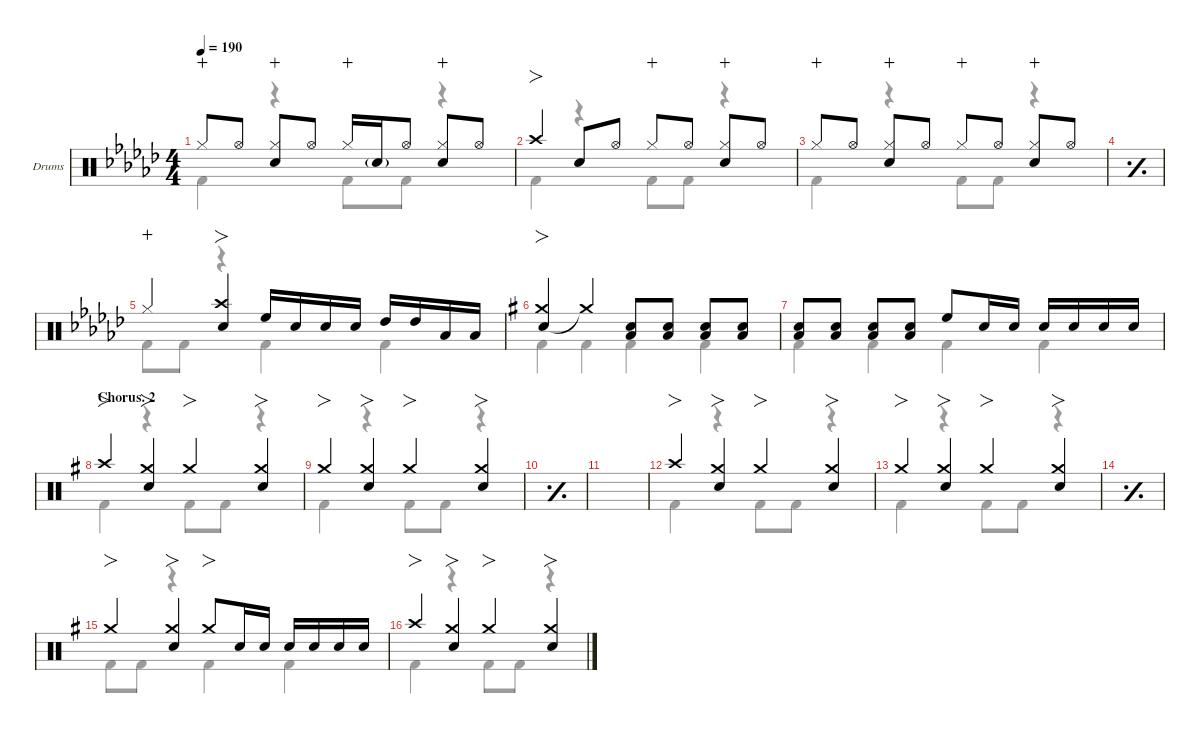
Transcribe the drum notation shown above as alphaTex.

\defaultSystemsLayout 4
\hideDynamics
\bracketExtendMode nobrackets
\firstSystemTrackNameOrientation horizontal
\track ("Drums" "Drums") {defaultSystemsLayout 4 instrument percussion}
\staff {score}
\articulation defaults
\voice
\ts (4 4)
\tempo 190
\clef neutral
\ks gb "Hi-Hat (closed)"{acc forcenatural}.8{dy f wahc} "Hi-Hat (open)"{acc forcenatural}.8
("Hi-Hat (closed)"{acc forcenatural} "Snare (hit) 2"{acc forcenatural}).8{wahc} "Hi-Hat (open)"{acc forcenatural}.8 "Hi-Hat (closed)"{acc forcenatural}.16{wahc} "Snare (hit) 2"{g acc forcenatural}.16{dy mf} "Hi-Hat (open)"{acc forcenatural}.8{dy f beam split} ("Hi-Hat (closed)"{acc forcenatural} "Snare (hit) 2"{acc forcenatural}).8{wahc} "Hi-Hat (open)"{acc forcenatural}.8 |
"Crash high (hit)"{acc forcenatural}.4{fo} "Snare (hit) 2"{acc forcenatural}.8 "Hi-Hat (open)"{acc forcenatural}.8 "Hi-Hat (closed)"{acc forcenatural}.8{wahc} "Hi-Hat (open)"{acc forcenatural}.8 ("Hi-Hat (closed)"{acc forcenatural} "Snare (hit) 2"{acc forcenatural}).8{wahc} "Hi-Hat (open)"{acc forcenatural}.8 |
"Hi-Hat (closed)"{acc forcenatural}.8{wahc} "Hi-Hat (open)"{acc forcenatural}.8 ("Hi-Hat (closed)"{acc forcenatural} "Snare (hit) 2"{acc forcenatural}).8{wahc} "Hi-Hat (open)"{acc forcenatural}.8 "Hi-Hat (closed)"{acc forcenatural}.8{wahc} "Hi-Hat (open)"{acc forcenatural}.8 ("Hi-Hat (closed)"{acc forcenatural} "Snare (hit) 2"{acc forcenatural}).8{wahc} "Hi-Hat (open)"{acc forcenatural}.8 |
\simile simple
|
\simile none "Hi-Hat (closed)"{acc forcenatural}.4{wahc}
("Crash high (hit)"{acc forcenatural} "Snare (hit) 2"{acc forcenatural}).4{fo} "High Floor Tom (hit)"{acc forcenatural}.16 "Snare (hit) 2"{acc forcenatural}.16{dy mf} "Snare (hit) 2"{acc forcenatural}.16{dy f} "Snare (hit) 2"{acc forcenatural}.16{dy mf beam split} "High Tom (hit)"{acc forcenatural}.16{dy f} "High Tom (hit)"{acc forcenatural}.16 "Low Tom (hit)"{acc forcenatural}.16 "Low Tom (hit)"{acc forcenatural}.16 |
\ks g
("Snare (hit) 2"{acc forcenatural} "Crash medium (hit)"{acc forcenatural}).4{fo} "Crash medium (hit)"{t acc forcenatural}.4 ("Snare (hit) 2"{acc forcenatural} "Low Tom (hit)"{acc forcenatural}).8 ("Snare (hit) 2"{acc forcenatural} "Low Tom (hit)"{acc forcenatural}).8 ("Snare (hit) 2"{acc forcenatural} "Low Tom (hit)"{acc forcenatural}).8 ("Snare (hit) 2"{acc forcenatural} "Low Tom (hit)"{acc forcenatural}).8 |
("Snare (hit) 2"{acc forcenatural} "Low Tom (hit)"{acc forcenatural}).8 ("Snare (hit) 2"{acc forcenatural} "Low Tom (hit)"{acc forcenatural}).8 ("Snare (hit) 2"{acc forcenatural} "Low Tom (hit)"{acc forcenatural}).8 ("Snare (hit) 2"{acc forcenatural} "Low Tom (hit)"{acc forcenatural}).8 "High Floor Tom (hit)"{acc forcenatural}.8 "Snare (hit) 2"{acc forcenatural}.16 "Snare (hit) 2"{acc forcenatural}.16{dy mf beam split} "Snare (hit) 2"{acc forcenatural}.16{dy f} "Snare (hit) 2"{acc forcenatural}.16{dy mf} "Snare (hit) 2"{acc forcenatural}.16{dy f} "Snare (hit) 2"{acc forcenatural}.16{dy mf} |
\section ("" "Chorus. 2")
"Crash high (hit)"{acc forcenatural}.4{fo dy f} ("Crash medium (hit)"{acc forcenatural} "Snare (hit) 2"{acc forcenatural}).4{fo} "Crash medium (hit)"{acc forcenatural}.4{fo} ("Crash medium (hit)"{acc forcenatural} "Snare (hit) 2"{acc forcenatural}).4{fo} |
"Crash medium (hit)"{acc forcenatural}.4{fo} ("Crash medium (hit)"{acc forcenatural} "Snare (hit) 2"{acc forcenatural}).4{fo} "Crash medium (hit)"{acc forcenatural}.4{fo} ("Crash medium (hit)"{acc forcenatural} "Snare (hit) 2"{acc forcenatural}).4{fo} |
\simile simple
|
|
\simile none "Crash high (hit)"{acc forcenatural}.4{fo}
("Crash medium (hit)"{acc forcenatural} "Snare (hit) 2"{acc forcenatural}).4{fo} "Crash medium (hit)"{acc forcenatural}.4{fo} ("Crash medium (hit)"{acc forcenatural} "Snare (hit) 2"{acc forcenatural}).4{fo} |
"Crash medium (hit)"{acc forcenatural}.4{fo} ("Crash medium (hit)"{acc forcenatural} "Snare (hit) 2"{acc forcenatural}).4{fo} "Crash medium (hit)"{acc forcenatural}.4{fo} ("Crash medium (hit)"{acc forcenatural} "Snare (hit) 2"{acc forcenatural}).4{fo} |
\simile simple
|
\simile none "Crash medium (hit)"{acc forcenatural}.4{fo}
("Crash medium (hit)"{acc forcenatural} "Snare (hit) 2"{acc forcenatural}).4{fo} "Crash medium (hit)"{acc forcenatural}.8{fo} "Snare (hit) 2"{acc forcenatural}.16 "Snare (hit) 2"{acc forcenatural}.16{dy mf beam split} "Snare (hit) 2"{acc forcenatural}.16{dy f} "Snare (hit) 2"{acc forcenatural}.16{dy mf} "Snare (hit) 2"{acc forcenatural}.16{dy f} "Snare (hit) 2"{acc forcenatural}.16{dy mf} |
"Crash high (hit)"{acc forcenatural}.4{fo dy f} ("Crash medium (hit)"{acc forcenatural} "Snare (hit) 2"{acc forcenatural}).4{fo} "Crash medium (hit)"{acc forcenatural}.4{fo} ("Crash medium (hit)"{acc forcenatural} "Snare (hit) 2"{acc forcenatural}).4{fo}
\voice
\clef neutral
\ottava regular
\simile none
\ks gb "Kick (hit) 2"{acc forcenatural}.4{dy f}
r.4 "Kick (hit) 2"{acc forcenatural}.8 "Kick (hit) 2"{acc forcenatural}.8 r.4 |
"Kick (hit) 2"{acc forcenatural}.4 r.4 "Kick (hit) 2"{acc forcenatural}.8 "Kick (hit) 2"{acc forcenatural}.8 r.4 |
"Kick (hit) 2"{acc forcenatural}.4 r.4 "Kick (hit) 2"{acc forcenatural}.8 "Kick (hit) 2"{acc forcenatural}.8 r.4 |
\simile simple
|
\simile none "Kick (hit) 2"{acc forcenatural}.8 "Kick (hit) 2"{acc forcenatural}.8
r.4 "Kick (hit) 2"{acc forcenatural}.4 "Kick (hit) 2"{acc forcenatural}.4 |
\ks g "Kick (hit) 2"{acc forcenatural}.4 "Kick (hit) 2"{acc forcenatural}.4 "Kick (hit) 2"{acc forcenatural}.4 "Kick (hit) 2"{acc forcenatural}.4
|
"Kick (hit) 2"{acc forcenatural}.4 "Kick (hit) 2"{acc forcenatural}.4 "Kick (hit) 2"{acc forcenatural}.4 "Kick (hit) 2"{acc forcenatural}.4 |
"Kick (hit) 2"{acc forcenatural}.4 r.4 "Kick (hit) 2"{acc forcenatural}.8 "Kick (hit) 2"{acc forcenatural}.8 r.4 |
"Kick (hit) 2"{acc forcenatural}.4 r.4 "Kick (hit) 2"{acc forcenatural}.8 "Kick (hit) 2"{acc forcenatural}.8 r.4 |
\simile simple
|
|
\simile none "Kick (hit) 2"{acc forcenatural}.4
r.4 "Kick (hit) 2"{acc forcenatural}.8 "Kick (hit) 2"{acc forcenatural}.8 r.4 |
"Kick (hit) 2"{acc forcenatural}.4 r.4 "Kick (hit) 2"{acc forcenatural}.8 "Kick (hit) 2"{acc forcenatural}.8 r.4 |
\simile simple
|
\simile none "Kick (hit) 2"{acc forcenatural}.8 "Kick (hit) 2"{acc forcenatural}.8
r.4 "Kick (hit) 2"{acc forcenatural}.4 "Kick (hit) 2"{acc forcenatural}.4 |
"Kick (hit) 2"{acc forcenatural}.4 r.4 "Kick (hit) 2"{acc forcenatural}.8 "Kick (hit) 2"{acc forcenatural}.8 r.4
